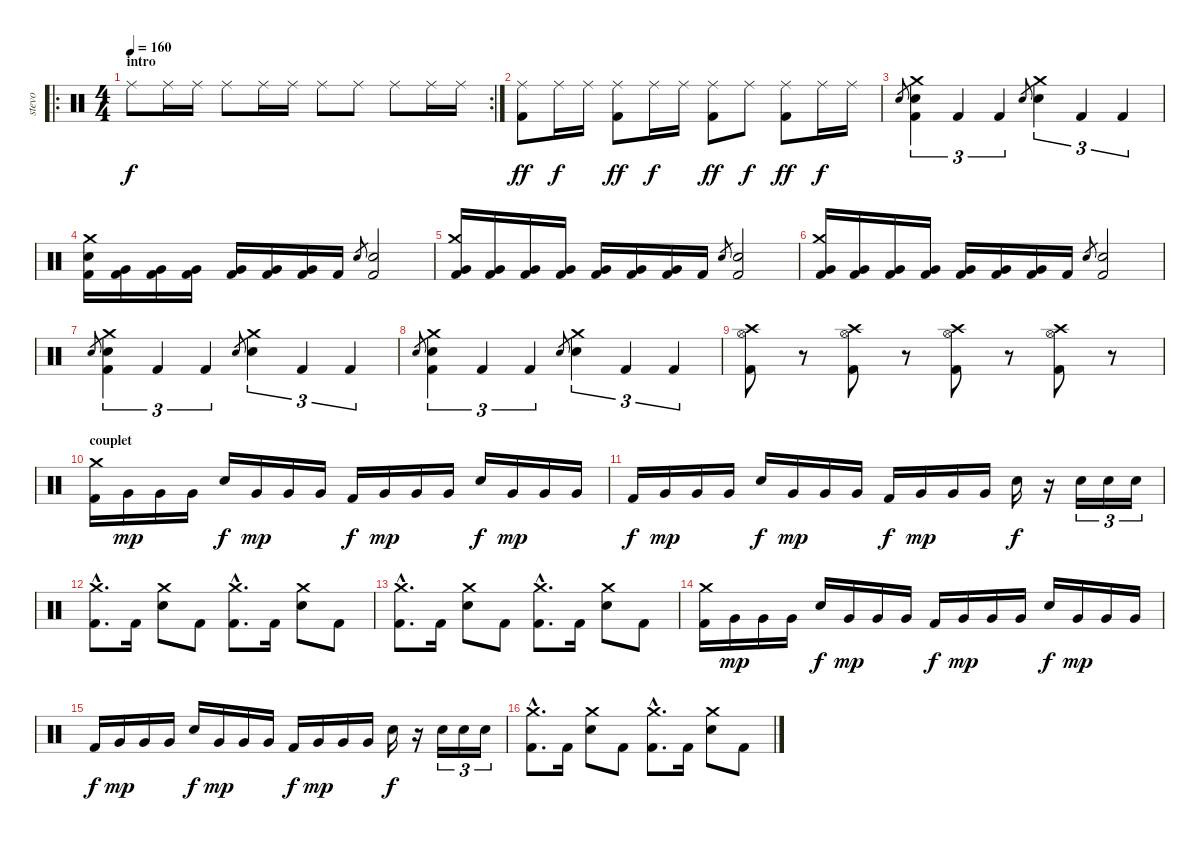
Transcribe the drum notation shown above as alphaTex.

\track ("stevo" "stevo") {instrument percussion}
\staff {score}
\articulation defaults
\ro
\rc 2
\ts (4 4)
\section ("" "intro")
\tempo 160
\clef neutral
\ks c "Ride (middle)".8{dy f} "Ride (middle)".16 "Ride (middle)".16 "Ride (middle)".8 "Ride (middle)".16 "Ride (middle)".16 "Ride (middle)".8 "Ride (middle)".8 "Ride (middle)".8 "Ride (middle)".16 "Ride (middle)".16
|
("Ride (middle)" "Kick (hit) 2").8{dy ff} "Ride (middle)".16{dy f} "Ride (middle)".16 ("Ride (middle)" "Kick (hit) 2").8{dy ff} "Ride (middle)".16{dy f} "Ride (middle)".16 ("Ride (middle)" "Kick (hit) 2").8{dy ff} "Ride (middle)".8{dy f} ("Ride (middle)" "Kick (hit) 2").8{dy ff} "Ride (middle)".16{dy f} "Ride (middle)".16 |
"Electric Snare (hit)".8{gr} ("Crash medium (hit)" "Electric Snare (hit)" "Kick (hit) 2").4{tu (3 2)} "Kick (hit) 2".4{tu (3 2)} "Kick (hit) 2".4{tu (3 2)} "Electric Snare (hit)".8{gr} ("Crash medium (hit)" "Electric Snare (hit)").4{tu (3 2)} "Kick (hit) 2".4{tu (3 2)} "Kick (hit) 2".4{tu (3 2)} |
("Crash medium (hit)" "Electric Snare (hit)" "Kick (hit) 2").16 ("Very Low Tom (hit)" "Kick (hit) 2").16 ("Very Low Tom (hit)" "Kick (hit) 2").16 ("Very Low Tom (hit)" "Kick (hit) 2").16 ("Very Low Tom (hit)" "Kick (hit) 2").16 ("Very Low Tom (hit)" "Kick (hit) 2").16 ("Very Low Tom (hit)" "Kick (hit) 2").16 "Kick (hit) 2".16 "Electric Snare (hit)".8{gr} ("Electric Snare (hit)" "Kick (hit) 2").2 |
("Crash medium (hit)" "Very Low Tom (hit)" "Kick (hit) 2").16 ("Very Low Tom (hit)" "Kick (hit) 2").16 ("Very Low Tom (hit)" "Kick (hit) 2").16 ("Very Low Tom (hit)" "Kick (hit) 2").16 ("Very Low Tom (hit)" "Kick (hit) 2").16 ("Very Low Tom (hit)" "Kick (hit) 2").16 ("Very Low Tom (hit)" "Kick (hit) 2").16 "Kick (hit) 2".16 "Electric Snare (hit)".8{gr} ("Electric Snare (hit)" "Kick (hit) 2").2 |
("Crash medium (hit)" "Very Low Tom (hit)" "Kick (hit) 2").16 ("Very Low Tom (hit)" "Kick (hit) 2").16 ("Very Low Tom (hit)" "Kick (hit) 2").16 ("Very Low Tom (hit)" "Kick (hit) 2").16 ("Very Low Tom (hit)" "Kick (hit) 2").16 ("Very Low Tom (hit)" "Kick (hit) 2").16 ("Very Low Tom (hit)" "Kick (hit) 2").16 "Kick (hit) 2".16 "Electric Snare (hit)".8{gr} ("Electric Snare (hit)" "Kick (hit) 2").2 |
"Electric Snare (hit)".8{gr} ("Crash medium (hit)" "Electric Snare (hit)" "Kick (hit) 2").4{tu (3 2)} "Kick (hit) 2".4{tu (3 2)} "Kick (hit) 2".4{tu (3 2)} "Electric Snare (hit)".8{gr} ("Crash medium (hit)" "Electric Snare (hit)").4{tu (3 2)} "Kick (hit) 2".4{tu (3 2)} "Kick (hit) 2".4{tu (3 2)} |
"Electric Snare (hit)".8{gr} ("Crash medium (hit)" "Electric Snare (hit)" "Kick (hit) 2").4{tu (3 2)} "Kick (hit) 2".4{tu (3 2)} "Kick (hit) 2".4{tu (3 2)} "Electric Snare (hit)".8{gr} ("Crash medium (hit)" "Electric Snare (hit)").4{tu (3 2)} "Kick (hit) 2".4{tu (3 2)} "Kick (hit) 2".4{tu (3 2)} |
("Crash high (hit)" "Hi-Hat (open)" "Kick (hit) 2").8 r.8 ("Crash high (hit)" "Hi-Hat (open)" "Kick (hit) 2").8 r.8 ("Crash high (hit)" "Hi-Hat (open)" "Kick (hit) 2").8 r.8 ("Crash high (hit)" "Hi-Hat (open)" "Kick (hit) 2").8 r.8 |
\section ("" "couplet")
("Crash medium (hit)" "Kick (hit) 2").16 "Very Low Tom (hit)".16{dy mp} "Very Low Tom (hit)".16 "Very Low Tom (hit)".16 "Electric Snare (hit)".16{dy f} "Very Low Tom (hit)".16{dy mp} "Very Low Tom (hit)".16 "Very Low Tom (hit)".16 "Kick (hit) 2".16{dy f} "Very Low Tom (hit)".16{dy mp} "Very Low Tom (hit)".16 "Very Low Tom (hit)".16 "Electric Snare (hit)".16{dy f} "Very Low Tom (hit)".16{dy mp} "Very Low Tom (hit)".16 "Very Low Tom (hit)".16 |
"Kick (hit) 2".16{dy f} "Very Low Tom (hit)".16{dy mp} "Very Low Tom (hit)".16 "Very Low Tom (hit)".16 "Electric Snare (hit)".16{dy f} "Very Low Tom (hit)".16{dy mp} "Very Low Tom (hit)".16 "Very Low Tom (hit)".16 "Kick (hit) 2".16{dy f} "Very Low Tom (hit)".16{dy mp} "Very Low Tom (hit)".16 "Very Low Tom (hit)".16 "Electric Snare (hit)".16{dy f} r.16 "Electric Snare (hit)".16{tu (3 2)} "Electric Snare (hit)".16{tu (3 2)} "Electric Snare (hit)".16{tu (3 2)} |
("Crash medium (hit)"{hac} "Kick (hit) 2"{hac}).8{d} "Kick (hit) 2".16 ("Crash medium (hit)" "Electric Snare (hit)").8 "Kick (hit) 2".8 ("Crash medium (hit)"{hac} "Kick (hit) 2"{hac}).8{d} "Kick (hit) 2".16 ("Crash medium (hit)" "Electric Snare (hit)").8 "Kick (hit) 2".8 |
("Crash medium (hit)"{hac} "Kick (hit) 2"{hac}).8{d} "Kick (hit) 2".16 ("Crash medium (hit)" "Electric Snare (hit)").8 "Kick (hit) 2".8 ("Crash medium (hit)"{hac} "Kick (hit) 2"{hac}).8{d} "Kick (hit) 2".16 ("Crash medium (hit)" "Electric Snare (hit)").8 "Kick (hit) 2".8 |
("Crash medium (hit)" "Kick (hit) 2").16 "Very Low Tom (hit)".16{dy mp} "Very Low Tom (hit)".16 "Very Low Tom (hit)".16 "Electric Snare (hit)".16{dy f} "Very Low Tom (hit)".16{dy mp} "Very Low Tom (hit)".16 "Very Low Tom (hit)".16 "Kick (hit) 2".16{dy f} "Very Low Tom (hit)".16{dy mp} "Very Low Tom (hit)".16 "Very Low Tom (hit)".16 "Electric Snare (hit)".16{dy f} "Very Low Tom (hit)".16{dy mp} "Very Low Tom (hit)".16 "Very Low Tom (hit)".16 |
"Kick (hit) 2".16{dy f} "Very Low Tom (hit)".16{dy mp} "Very Low Tom (hit)".16 "Very Low Tom (hit)".16 "Electric Snare (hit)".16{dy f} "Very Low Tom (hit)".16{dy mp} "Very Low Tom (hit)".16 "Very Low Tom (hit)".16 "Kick (hit) 2".16{dy f} "Very Low Tom (hit)".16{dy mp} "Very Low Tom (hit)".16 "Very Low Tom (hit)".16 "Electric Snare (hit)".16{dy f} r.16 "Electric Snare (hit)".16{tu (3 2)} "Electric Snare (hit)".16{tu (3 2)} "Electric Snare (hit)".16{tu (3 2)} |
("Crash medium (hit)"{hac} "Kick (hit) 2"{hac}).8{d} "Kick (hit) 2".16 ("Crash medium (hit)" "Electric Snare (hit)").8 "Kick (hit) 2".8 ("Crash medium (hit)"{hac} "Kick (hit) 2"{hac}).8{d} "Kick (hit) 2".16 ("Crash medium (hit)" "Electric Snare (hit)").8 "Kick (hit) 2".8
